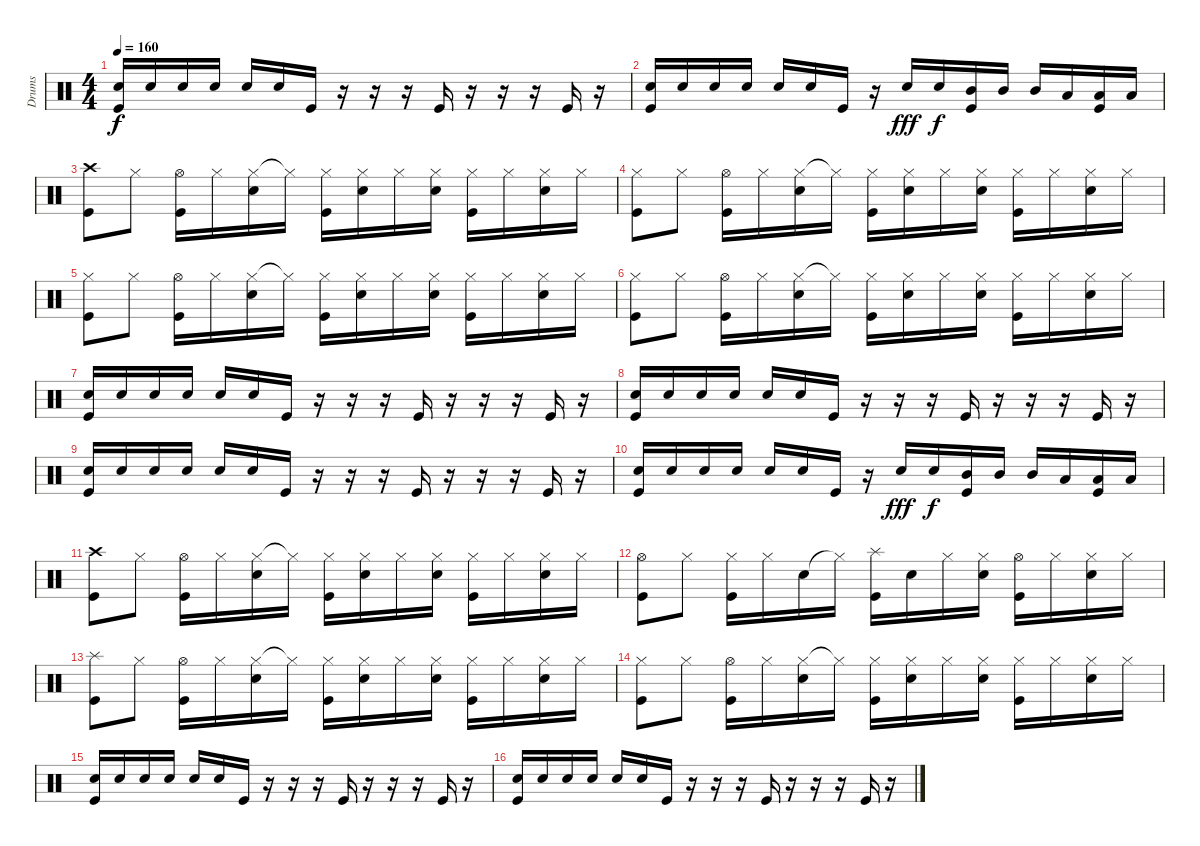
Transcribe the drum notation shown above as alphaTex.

\track ("Drums" "Drums") {instrument percussion}
\staff {score}
\articulation defaults
\ts (4 4)
\tempo 160
\clef neutral
\ks c
("Electric Snare (hit)" "Kick (hit)").16{dy f} "Electric Snare (hit)".16 "Electric Snare (hit)".16 "Electric Snare (hit)".16 "Electric Snare (hit)".16 "Electric Snare (hit)".16 "Kick (hit)".16 r.16 r.16 r.16 "Kick (hit)".16 r.16 r.16 r.16 "Kick (hit)".16 r.16 |
("Electric Snare (hit)" "Kick (hit)").16 "Electric Snare (hit)".16 "Electric Snare (hit)".16 "Electric Snare (hit)".16 "Electric Snare (hit)".16 "Electric Snare (hit)".16 "Kick (hit)".16 r.16 "Electric Snare (hit)".16{dy fff} "Electric Snare (hit)".16{dy f} ("Mid Tom (hit)" "Kick (hit)").16 "Mid Tom (hit)".16 "Mid Tom (hit)".16 "Low Tom (hit)".16 ("Low Tom (hit)" "Kick (hit)").16 "Low Tom (hit)".16 |
("Crash high (hit)" "Kick (hit)").8 "Hi-Hat (closed)".8 ("Hi-Hat (open)" "Kick (hit)").16 "Hi-Hat (closed)".16 ("Hi-Hat (closed)" "Electric Snare (hit)").16 "Hi-Hat (closed)"{t}.16 ("Hi-Hat (closed)" "Kick (hit)").16 ("Hi-Hat (closed)" "Electric Snare (hit)").16 "Hi-Hat (closed)".16 ("Hi-Hat (closed)" "Electric Snare (hit)").16 ("Hi-Hat (closed)" "Kick (hit)").16 "Hi-Hat (closed)".16 ("Hi-Hat (closed)" "Electric Snare (hit)").16 "Hi-Hat (closed)".16 |
("Hi-Hat (closed)" "Kick (hit)").8 "Hi-Hat (closed)".8 ("Hi-Hat (open)" "Kick (hit)").16 "Hi-Hat (closed)".16 ("Hi-Hat (closed)" "Electric Snare (hit)").16 "Hi-Hat (closed)"{t}.16 ("Hi-Hat (closed)" "Kick (hit)").16 ("Hi-Hat (closed)" "Electric Snare (hit)").16 "Hi-Hat (closed)".16 ("Hi-Hat (closed)" "Electric Snare (hit)").16 ("Hi-Hat (closed)" "Kick (hit)").16 "Hi-Hat (closed)".16 ("Hi-Hat (closed)" "Electric Snare (hit)").16 "Hi-Hat (closed)".16 |
("Hi-Hat (closed)" "Kick (hit)").8 "Hi-Hat (closed)".8 ("Hi-Hat (open)" "Kick (hit)").16 "Hi-Hat (closed)".16 ("Hi-Hat (closed)" "Electric Snare (hit)").16 "Hi-Hat (closed)"{t}.16 ("Hi-Hat (closed)" "Kick (hit)").16 ("Hi-Hat (closed)" "Electric Snare (hit)").16 "Hi-Hat (closed)".16 ("Hi-Hat (closed)" "Electric Snare (hit)").16 ("Hi-Hat (closed)" "Kick (hit)").16 "Hi-Hat (closed)".16 ("Hi-Hat (closed)" "Electric Snare (hit)").16 "Hi-Hat (closed)".16 |
("Hi-Hat (closed)" "Kick (hit)").8 "Hi-Hat (closed)".8 ("Hi-Hat (open)" "Kick (hit)").16 "Hi-Hat (closed)".16 ("Hi-Hat (closed)" "Electric Snare (hit)").16 "Hi-Hat (closed)"{t}.16 ("Hi-Hat (closed)" "Kick (hit)").16 ("Hi-Hat (closed)" "Electric Snare (hit)").16 "Hi-Hat (closed)".16 ("Hi-Hat (closed)" "Electric Snare (hit)").16 ("Hi-Hat (closed)" "Kick (hit)").16 "Hi-Hat (closed)".16 ("Hi-Hat (closed)" "Electric Snare (hit)").16 "Hi-Hat (closed)".16 |
("Electric Snare (hit)" "Kick (hit)").16 "Electric Snare (hit)".16 "Electric Snare (hit)".16 "Electric Snare (hit)".16 "Electric Snare (hit)".16 "Electric Snare (hit)".16 "Kick (hit)".16 r.16 r.16 r.16 "Kick (hit)".16 r.16 r.16 r.16 "Kick (hit)".16 r.16 |
("Electric Snare (hit)" "Kick (hit)").16 "Electric Snare (hit)".16 "Electric Snare (hit)".16 "Electric Snare (hit)".16 "Electric Snare (hit)".16 "Electric Snare (hit)".16 "Kick (hit)".16 r.16 r.16 r.16 "Kick (hit)".16 r.16 r.16 r.16 "Kick (hit)".16 r.16 |
("Electric Snare (hit)" "Kick (hit)").16 "Electric Snare (hit)".16 "Electric Snare (hit)".16 "Electric Snare (hit)".16 "Electric Snare (hit)".16 "Electric Snare (hit)".16 "Kick (hit)".16 r.16 r.16 r.16 "Kick (hit)".16 r.16 r.16 r.16 "Kick (hit)".16 r.16 |
("Electric Snare (hit)" "Kick (hit)").16 "Electric Snare (hit)".16 "Electric Snare (hit)".16 "Electric Snare (hit)".16 "Electric Snare (hit)".16 "Electric Snare (hit)".16 "Kick (hit)".16 r.16 "Electric Snare (hit)".16{dy fff} "Electric Snare (hit)".16{dy f} ("Mid Tom (hit)" "Kick (hit)").16 "Mid Tom (hit)".16 "Mid Tom (hit)".16 "Low Tom (hit)".16 ("Low Tom (hit)" "Kick (hit)").16 "Low Tom (hit)".16 |
("Crash high (hit)" "Kick (hit)").8 "Hi-Hat (closed)".8 ("Hi-Hat (open)" "Kick (hit)").16 "Hi-Hat (closed)".16 ("Hi-Hat (closed)" "Electric Snare (hit)").16 "Hi-Hat (closed)"{t}.16 ("Hi-Hat (closed)" "Kick (hit)").16 ("Hi-Hat (closed)" "Electric Snare (hit)").16 "Hi-Hat (closed)".16 ("Hi-Hat (closed)" "Electric Snare (hit)").16 ("Hi-Hat (closed)" "Kick (hit)").16 "Hi-Hat (closed)".16 ("Hi-Hat (closed)" "Electric Snare (hit)").16 "Hi-Hat (closed)".16 |
("Hi-Hat (open)" "Kick (hit)").8 "Hi-Hat (closed)".8 ("Hi-Hat (closed)" "Kick (hit)").16 "Hi-Hat (closed)".16 "Electric Snare (hit)".16 "Hi-Hat (closed)"{t}.16 ("Splash (hit)" "Kick (hit)").16 "Electric Snare (hit)".16 "Hi-Hat (closed)".16 ("Hi-Hat (closed)" "Electric Snare (hit)").16 ("Hi-Hat (open)" "Kick (hit)").16 "Hi-Hat (closed)".16 ("Hi-Hat (closed)" "Electric Snare (hit)").16 "Hi-Hat (closed)".16 |
("Splash (hit)" "Kick (hit)").8 "Hi-Hat (closed)".8 ("Hi-Hat (open)" "Kick (hit)").16 "Hi-Hat (closed)".16 ("Hi-Hat (closed)" "Electric Snare (hit)").16 "Hi-Hat (closed)"{t}.16 ("Hi-Hat (closed)" "Kick (hit)").16 ("Hi-Hat (closed)" "Electric Snare (hit)").16 "Hi-Hat (closed)".16 ("Hi-Hat (closed)" "Electric Snare (hit)").16 ("Hi-Hat (closed)" "Kick (hit)").16 "Hi-Hat (closed)".16 ("Hi-Hat (closed)" "Electric Snare (hit)").16 "Hi-Hat (closed)".16 |
("Hi-Hat (closed)" "Kick (hit)").8 "Hi-Hat (closed)".8 ("Hi-Hat (open)" "Kick (hit)").16 "Hi-Hat (closed)".16 ("Hi-Hat (closed)" "Electric Snare (hit)").16 "Hi-Hat (closed)"{t}.16 ("Hi-Hat (closed)" "Kick (hit)").16 ("Hi-Hat (closed)" "Electric Snare (hit)").16 "Hi-Hat (closed)".16 ("Hi-Hat (closed)" "Electric Snare (hit)").16 ("Hi-Hat (closed)" "Kick (hit)").16 "Hi-Hat (closed)".16 ("Hi-Hat (closed)" "Electric Snare (hit)").16 "Hi-Hat (closed)".16 |
("Electric Snare (hit)" "Kick (hit)").16 "Electric Snare (hit)".16 "Electric Snare (hit)".16 "Electric Snare (hit)".16 "Electric Snare (hit)".16 "Electric Snare (hit)".16 "Kick (hit)".16 r.16 r.16 r.16 "Kick (hit)".16 r.16 r.16 r.16 "Kick (hit)".16 r.16 |
("Electric Snare (hit)" "Kick (hit)").16 "Electric Snare (hit)".16 "Electric Snare (hit)".16 "Electric Snare (hit)".16 "Electric Snare (hit)".16 "Electric Snare (hit)".16 "Kick (hit)".16 r.16 r.16 r.16 "Kick (hit)".16 r.16 r.16 r.16 "Kick (hit)".16 r.16
